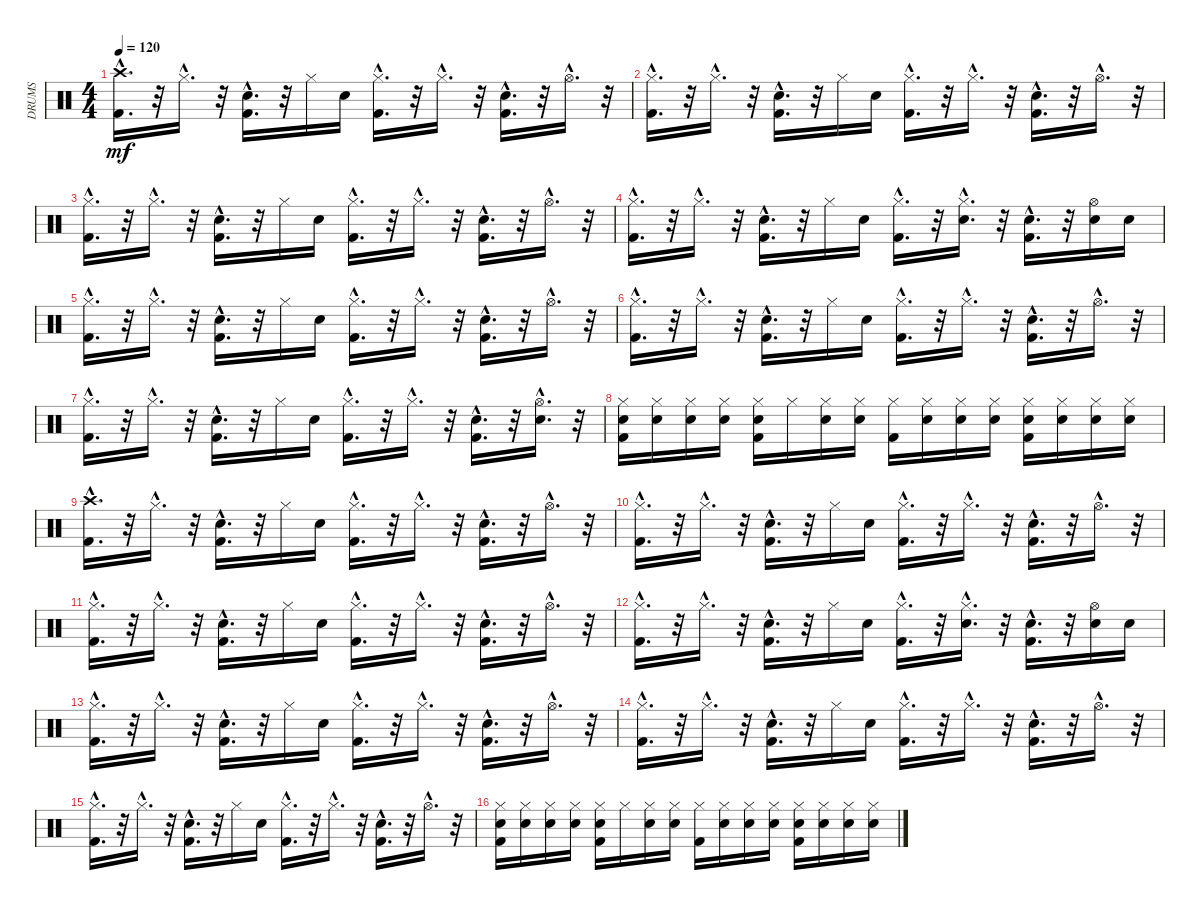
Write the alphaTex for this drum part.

\track ("DRUMS" "DRUMS") {instrument percussion}
\staff {score}
\articulation defaults
\ts (4 4)
\tempo 120
\clef neutral
\ks c
("Crash high (hit)"{hac} "Kick (hit) 2"{hac}).16{d dy mf} r.32 "Hi-Hat (closed)"{hac}.16{d} r.32 ("Kick (hit) 2"{hac} "Electric Snare (hit)"{hac}).16{d} r.32 "Hi-Hat (closed)".16 "Electric Snare (hit)".16 ("Kick (hit) 2"{hac} "Hi-Hat (closed)"{hac}).16{d} r.32 "Hi-Hat (closed)"{hac}.16{d} r.32 ("Kick (hit) 2"{hac} "Electric Snare (hit)"{hac}).16{d} r.32 "Hi-Hat (open)"{hac}.16{d} r.32 |
("Kick (hit) 2"{hac} "Hi-Hat (closed)"{hac}).16{d} r.32 "Hi-Hat (closed)"{hac}.16{d} r.32 ("Kick (hit) 2"{hac} "Electric Snare (hit)"{hac}).16{d} r.32 "Hi-Hat (closed)".16 "Electric Snare (hit)".16 ("Kick (hit) 2"{hac} "Hi-Hat (closed)"{hac}).16{d} r.32 "Hi-Hat (closed)"{hac}.16{d} r.32 ("Kick (hit) 2"{hac} "Electric Snare (hit)"{hac}).16{d} r.32 "Hi-Hat (open)"{hac}.16{d} r.32 |
("Kick (hit) 2"{hac} "Hi-Hat (closed)"{hac}).16{d} r.32 "Hi-Hat (closed)"{hac}.16{d} r.32 ("Kick (hit) 2"{hac} "Electric Snare (hit)"{hac}).16{d} r.32 "Hi-Hat (closed)".16 "Electric Snare (hit)".16 ("Hi-Hat (closed)"{hac} "Kick (hit) 2"{hac}).16{d} r.32 "Hi-Hat (closed)"{hac}.16{d} r.32 ("Electric Snare (hit)"{hac} "Kick (hit) 2"{hac}).16{d} r.32 "Hi-Hat (open)"{hac}.16{d} r.32 |
("Kick (hit) 2"{hac} "Hi-Hat (closed)"{hac}).16{d} r.32 "Hi-Hat (closed)"{hac}.16{d} r.32 ("Kick (hit) 2"{hac} "Electric Snare (hit)"{hac}).16{d} r.32 "Hi-Hat (closed)".16 "Electric Snare (hit)".16 ("Kick (hit) 2"{hac} "Hi-Hat (closed)"{hac}).16{d} r.32 ("Electric Snare (hit)"{hac} "Hi-Hat (closed)"{hac}).16{d} r.32 ("Kick (hit) 2"{hac} "Electric Snare (hit)"{hac}).16{d} r.32 ("Electric Snare (hit)" "Hi-Hat (open)").16 "Electric Snare (hit)".16 |
("Kick (hit) 2"{hac} "Hi-Hat (closed)"{hac}).16{d} r.32 "Hi-Hat (closed)"{hac}.16{d} r.32 ("Kick (hit) 2"{hac} "Electric Snare (hit)"{hac}).16{d} r.32 "Hi-Hat (closed)".16 "Electric Snare (hit)".16 ("Kick (hit) 2"{hac} "Hi-Hat (closed)"{hac}).16{d} r.32 "Hi-Hat (closed)"{hac}.16{d} r.32 ("Kick (hit) 2"{hac} "Electric Snare (hit)"{hac}).16{d} r.32 "Hi-Hat (open)"{hac}.16{d} r.32 |
("Hi-Hat (closed)"{hac} "Kick (hit) 2"{hac}).16{d} r.32 "Hi-Hat (closed)"{hac}.16{d} r.32 ("Electric Snare (hit)"{hac} "Kick (hit) 2"{hac}).16{d} r.32 "Hi-Hat (closed)".16 "Electric Snare (hit)".16 ("Hi-Hat (closed)"{hac} "Kick (hit) 2"{hac}).16{d} r.32 "Hi-Hat (closed)"{hac}.16{d} r.32 ("Electric Snare (hit)"{hac} "Kick (hit) 2"{hac}).16{d} r.32 "Hi-Hat (open)"{hac}.16{d} r.32 |
("Hi-Hat (closed)"{hac} "Kick (hit) 2"{hac}).16{d} r.32 "Hi-Hat (closed)"{hac}.16{d} r.32 ("Electric Snare (hit)"{hac} "Kick (hit) 2"{hac}).16{d} r.32 "Hi-Hat (closed)".16 "Electric Snare (hit)".16 ("Hi-Hat (closed)"{hac} "Kick (hit) 2"{hac}).16{d} r.32 "Hi-Hat (closed)"{hac}.16{d} r.32 ("Electric Snare (hit)"{hac} "Kick (hit) 2"{hac}).16{d} r.32 ("Electric Snare (hit)"{hac} "Hi-Hat (open)"{hac}).16{d} r.32 |
("Hi-Hat (closed)" "Kick (hit) 2" "Electric Snare (hit)").16 ("Hi-Hat (closed)" "Electric Snare (hit)").16 ("Electric Snare (hit)" "Hi-Hat (closed)").16 ("Hi-Hat (closed)" "Electric Snare (hit)").16 ("Electric Snare (hit)" "Kick (hit) 2" "Hi-Hat (closed)").16 "Hi-Hat (closed)".16 ("Hi-Hat (closed)" "Electric Snare (hit)").16 ("Electric Snare (hit)" "Hi-Hat (closed)").16 ("Kick (hit) 2" "Hi-Hat (closed)").16 ("Electric Snare (hit)" "Hi-Hat (closed)").16 ("Hi-Hat (closed)" "Electric Snare (hit)").16 ("Electric Snare (hit)" "Hi-Hat (closed)").16 ("Electric Snare (hit)" "Kick (hit) 2" "Hi-Hat (closed)").16 ("Electric Snare (hit)" "Hi-Hat (closed)").16 ("Hi-Hat (closed)" "Electric Snare (hit)").16 ("Hi-Hat (closed)" "Electric Snare (hit)").16 |
("Crash high (hit)"{hac} "Kick (hit) 2"{hac}).16{d} r.32 "Hi-Hat (closed)"{hac}.16{d} r.32 ("Kick (hit) 2"{hac} "Electric Snare (hit)"{hac}).16{d} r.32 "Hi-Hat (closed)".16 "Electric Snare (hit)".16 ("Hi-Hat (closed)"{hac} "Kick (hit) 2"{hac}).16{d} r.32 "Hi-Hat (closed)"{hac}.16{d} r.32 ("Kick (hit) 2"{hac} "Electric Snare (hit)"{hac}).16{d} r.32 "Hi-Hat (open)"{hac}.16{d} r.32 |
("Hi-Hat (closed)"{hac} "Kick (hit) 2"{hac}).16{d} r.32 "Hi-Hat (closed)"{hac}.16{d} r.32 ("Electric Snare (hit)"{hac} "Kick (hit) 2"{hac}).16{d} r.32 "Hi-Hat (closed)".16 "Electric Snare (hit)".16 ("Hi-Hat (closed)"{hac} "Kick (hit) 2"{hac}).16{d} r.32 "Hi-Hat (closed)"{hac}.16{d} r.32 ("Electric Snare (hit)"{hac} "Kick (hit) 2"{hac}).16{d} r.32 "Hi-Hat (open)"{hac}.16{d} r.32 |
("Hi-Hat (closed)"{hac} "Kick (hit) 2"{hac}).16{d} r.32 "Hi-Hat (closed)"{hac}.16{d} r.32 ("Electric Snare (hit)"{hac} "Kick (hit) 2"{hac}).16{d} r.32 "Hi-Hat (closed)".16 "Electric Snare (hit)".16 ("Hi-Hat (closed)"{hac} "Kick (hit) 2"{hac}).16{d} r.32 "Hi-Hat (closed)"{hac}.16{d} r.32 ("Electric Snare (hit)"{hac} "Kick (hit) 2"{hac}).16{d} r.32 "Hi-Hat (open)"{hac}.16{d} r.32 |
("Hi-Hat (closed)"{hac} "Kick (hit) 2"{hac}).16{d} r.32 "Hi-Hat (closed)"{hac}.16{d} r.32 ("Electric Snare (hit)"{hac} "Kick (hit) 2"{hac}).16{d} r.32 "Hi-Hat (closed)".16 "Electric Snare (hit)".16 ("Hi-Hat (closed)"{hac} "Kick (hit) 2"{hac}).16{d} r.32 ("Hi-Hat (closed)"{hac} "Electric Snare (hit)"{hac}).16{d} r.32 ("Electric Snare (hit)"{hac} "Kick (hit) 2"{hac}).16{d} r.32 ("Hi-Hat (open)" "Electric Snare (hit)").16 "Electric Snare (hit)".16 |
("Hi-Hat (closed)"{hac} "Kick (hit) 2"{hac}).16{d} r.32 "Hi-Hat (closed)"{hac}.16{d} r.32 ("Electric Snare (hit)"{hac} "Kick (hit) 2"{hac}).16{d} r.32 "Hi-Hat (closed)".16 "Electric Snare (hit)".16 ("Kick (hit) 2"{hac} "Hi-Hat (closed)"{hac}).16{d} r.32 "Hi-Hat (closed)"{hac}.16{d} r.32 ("Electric Snare (hit)"{hac} "Kick (hit) 2"{hac}).16{d} r.32 "Hi-Hat (open)"{hac}.16{d} r.32 |
("Kick (hit) 2"{hac} "Hi-Hat (closed)"{hac}).16{d} r.32 "Hi-Hat (closed)"{hac}.16{d} r.32 ("Kick (hit) 2"{hac} "Electric Snare (hit)"{hac}).16{d} r.32 "Hi-Hat (closed)".16 "Electric Snare (hit)".16 ("Kick (hit) 2"{hac} "Hi-Hat (closed)"{hac}).16{d} r.32 "Hi-Hat (closed)"{hac}.16{d} r.32 ("Kick (hit) 2"{hac} "Electric Snare (hit)"{hac}).16{d} r.32 "Hi-Hat (open)"{hac}.16{d} r.32 |
("Kick (hit) 2"{hac} "Hi-Hat (closed)"{hac}).16{d} r.32 "Hi-Hat (closed)"{hac}.16{d} r.32 ("Kick (hit) 2"{hac} "Electric Snare (hit)"{hac}).16{d} r.32 "Hi-Hat (closed)".16 "Electric Snare (hit)".16 ("Kick (hit) 2"{hac} "Hi-Hat (closed)"{hac}).16{d} r.32 "Hi-Hat (closed)"{hac}.16{d} r.32 ("Kick (hit) 2"{hac} "Electric Snare (hit)"{hac}).16{d} r.32 "Hi-Hat (open)"{hac}.16{d} r.32 |
("Electric Snare (hit)" "Kick (hit) 2" "Hi-Hat (closed)").16 ("Electric Snare (hit)" "Hi-Hat (closed)").16 ("Hi-Hat (closed)" "Electric Snare (hit)").16 ("Electric Snare (hit)" "Hi-Hat (closed)").16 ("Hi-Hat (closed)" "Kick (hit) 2" "Electric Snare (hit)").16 "Hi-Hat (closed)".16 ("Electric Snare (hit)" "Hi-Hat (closed)").16 ("Hi-Hat (closed)" "Electric Snare (hit)").16 ("Hi-Hat (closed)" "Kick (hit) 2").16 ("Hi-Hat (closed)" "Electric Snare (hit)").16 ("Hi-Hat (closed)" "Electric Snare (hit)").16 ("Hi-Hat (closed)" "Electric Snare (hit)").16 ("Hi-Hat (closed)" "Kick (hit) 2" "Electric Snare (hit)").16 ("Hi-Hat (closed)" "Electric Snare (hit)").16 ("Electric Snare (hit)" "Hi-Hat (closed)").16 ("Electric Snare (hit)" "Hi-Hat (closed)").16
